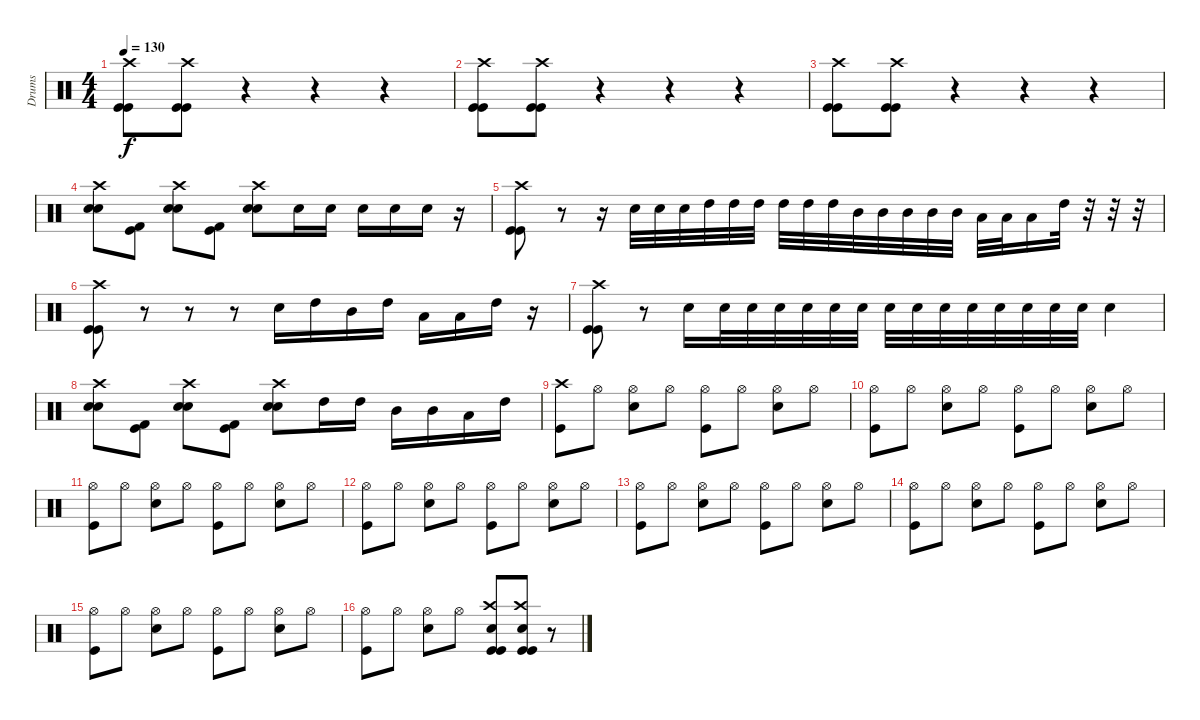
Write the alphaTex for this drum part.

\track ("Drums" "Drums") {instrument percussion}
\staff {score}
\articulation defaults
\ts (4 4)
\tempo 130
\clef neutral
\ks c
("Kick (hit)" "Crash high (hit)" "Kick (hit)").8{dy f} ("Kick (hit)" "Crash high (hit)" "Kick (hit)").8 r.4 r.4 r.4 |
("Kick (hit)" "Crash high (hit)" "Kick (hit)").8 ("Kick (hit)" "Crash high (hit)" "Kick (hit)").8 r.4 r.4 r.4 |
("Kick (hit)" "Crash high (hit)" "Kick (hit)").8 ("Kick (hit)" "Crash high (hit)" "Kick (hit)").8 r.4 r.4 r.4 |
("Electric Snare (hit)" "Crash high (hit)" "Electric Snare (hit)").8 ("Kick (hit)" "Kick (hit) 2").8 ("Electric Snare (hit)" "Crash high (hit)" "Electric Snare (hit)").8 ("Kick (hit)" "Kick (hit) 2").8 ("Electric Snare (hit)" "Crash high (hit)" "Electric Snare (hit)").8 "Electric Snare (hit)".16 "Electric Snare (hit)".16 "Electric Snare (hit)".16 "Electric Snare (hit)".16 "Electric Snare (hit)".16 r.16 |
("Kick (hit)" "Crash high (hit)" "Kick (hit)").8 r.8 r.16 "Snare (hit) 2".32 "Snare (hit) 2".32 "Snare (hit) 2".32 "High Tom (hit)".32 "High Tom (hit)".32 "High Tom (hit)".32 "High Tom (hit)".32 "High Tom (hit)".32 "High Tom (hit)".32 "Mid Tom (hit)".32 "Mid Tom (hit)".32 "Mid Tom (hit)".32 "Mid Tom (hit)".32 "Mid Tom (hit)".32 "Low Tom (hit)".32 "Low Tom (hit)".32 "Low Tom (hit)".16 "High Tom (hit)".32 r.32 r.32 r.32 |
("Kick (hit)" "Crash high (hit)" "Kick (hit)").8 r.8 r.8 r.8 "Electric Snare (hit)".16 "High Tom (hit)".16 "Mid Tom (hit)".16 "High Tom (hit)".16 "Low Tom (hit)".16 "Low Tom (hit)".16 "High Tom (hit)".16 r.16 |
("Kick (hit)" "Crash high (hit)" "Kick (hit)").8 r.8 "Electric Snare (hit)".16 "Electric Snare (hit)".32 "Electric Snare (hit)".32 "Electric Snare (hit)".32 "Electric Snare (hit)".32 "Electric Snare (hit)".32 "Electric Snare (hit)".32 "Electric Snare (hit)".32 "Electric Snare (hit)".32 "Electric Snare (hit)".32 "Electric Snare (hit)".32 "Electric Snare (hit)".32 "Electric Snare (hit)".32 "Electric Snare (hit)".32 "Electric Snare (hit)".32 "Electric Snare (hit)".4 |
("Electric Snare (hit)" "Crash high (hit)" "Electric Snare (hit)").8 ("Kick (hit) 2" "Kick (hit)").8 ("Electric Snare (hit)" "Crash high (hit)" "Electric Snare (hit)").8 ("Kick (hit) 2" "Kick (hit)").8 ("Electric Snare (hit)" "Crash high (hit)" "Electric Snare (hit)").8 "High Tom (hit)".16 "High Tom (hit)".16 "Mid Tom (hit)".16 "Mid Tom (hit)".16 "Low Tom (hit)".16 "High Tom (hit)".16 |
("Crash high (hit)" "Kick (hit)").8 "Hi-Hat (open)".8 ("Hi-Hat (open)" "Electric Snare (hit)").8 "Hi-Hat (open)".8 ("Hi-Hat (open)" "Kick (hit)").8 "Hi-Hat (open)".8 ("Hi-Hat (open)" "Electric Snare (hit)").8 "Hi-Hat (open)".8 |
("Hi-Hat (open)" "Kick (hit)").8 "Hi-Hat (open)".8 ("Hi-Hat (open)" "Electric Snare (hit)").8 "Hi-Hat (open)".8 ("Hi-Hat (open)" "Kick (hit)").8 "Hi-Hat (open)".8 ("Hi-Hat (open)" "Electric Snare (hit)").8 "Hi-Hat (open)".8 |
("Hi-Hat (open)" "Kick (hit)").8 "Hi-Hat (open)".8 ("Hi-Hat (open)" "Electric Snare (hit)").8 "Hi-Hat (open)".8 ("Hi-Hat (open)" "Kick (hit)").8 "Hi-Hat (open)".8 ("Hi-Hat (open)" "Electric Snare (hit)").8 "Hi-Hat (open)".8 |
("Hi-Hat (open)" "Kick (hit)").8 "Hi-Hat (open)".8 ("Hi-Hat (open)" "Electric Snare (hit)").8 "Hi-Hat (open)".8 ("Hi-Hat (open)" "Kick (hit)").8 "Hi-Hat (open)".8 ("Hi-Hat (open)" "Electric Snare (hit)").8 "Hi-Hat (open)".8 |
("Hi-Hat (open)" "Kick (hit)").8 "Hi-Hat (open)".8 ("Hi-Hat (open)" "Electric Snare (hit)").8 "Hi-Hat (open)".8 ("Hi-Hat (open)" "Kick (hit)").8 "Hi-Hat (open)".8 ("Hi-Hat (open)" "Electric Snare (hit)").8 "Hi-Hat (open)".8 |
("Hi-Hat (open)" "Kick (hit)").8 "Hi-Hat (open)".8 ("Hi-Hat (open)" "Electric Snare (hit)").8 "Hi-Hat (open)".8 ("Hi-Hat (open)" "Kick (hit)").8 "Hi-Hat (open)".8 ("Hi-Hat (open)" "Electric Snare (hit)").8 "Hi-Hat (open)".8 |
("Hi-Hat (open)" "Kick (hit)").8 "Hi-Hat (open)".8 ("Hi-Hat (open)" "Electric Snare (hit)").8 "Hi-Hat (open)".8 ("Hi-Hat (open)" "Kick (hit)").8 "Hi-Hat (open)".8 ("Hi-Hat (open)" "Electric Snare (hit)").8 "Hi-Hat (open)".8 |
("Hi-Hat (open)" "Kick (hit)").8 "Hi-Hat (open)".8 ("Hi-Hat (open)" "Electric Snare (hit)").8 "Hi-Hat (open)".8 ("Crash high (hit)" "Electric Snare (hit)" "Kick (hit)" "Kick (hit)").8 ("Crash high (hit)" "Electric Snare (hit)" "Kick (hit)" "Kick (hit)").8 r.8
